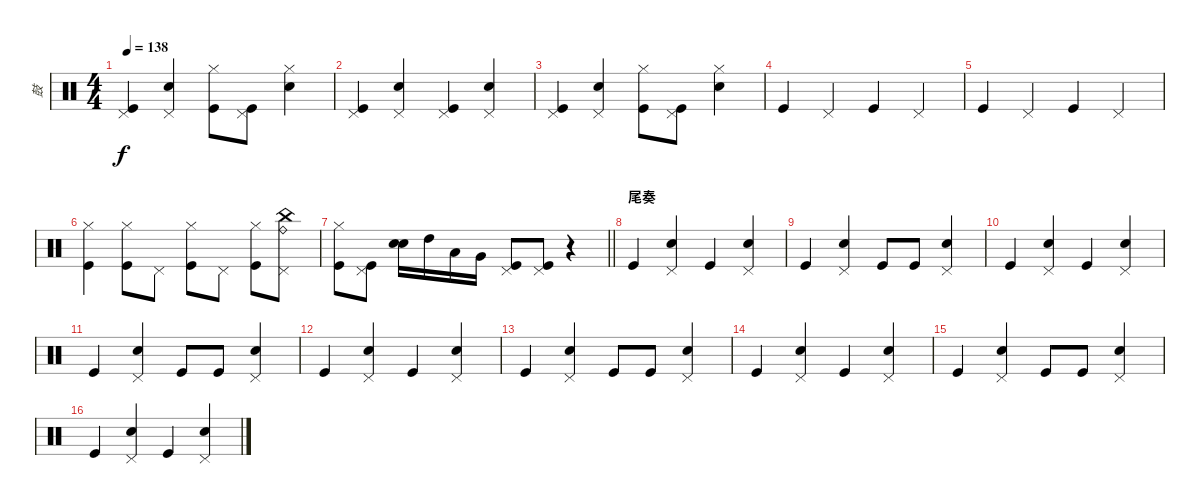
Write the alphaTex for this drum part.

\track ("鼓" "鼓") {instrument percussion}
\staff {score}
\articulation defaults
\ts (4 4)
\tempo 138
\clef neutral
\ks c
("Kick (hit)" "Pedal Hi-Hat (hit)").4{dy f} ("Snare (hit) 2" "Pedal Hi-Hat (hit)").4 ("Kick (hit)" "Hi-Hat (closed)").8 ("Kick (hit)" "Pedal Hi-Hat (hit)").8 ("Snare (hit) 2" "Hi-Hat (closed)").4 |
("Kick (hit)" "Pedal Hi-Hat (hit)").4 ("Snare (hit) 2" "Pedal Hi-Hat (hit)").4 ("Kick (hit)" "Pedal Hi-Hat (hit)").4 ("Snare (hit) 2" "Pedal Hi-Hat (hit)").4 |
("Kick (hit)" "Pedal Hi-Hat (hit)").4 ("Snare (hit) 2" "Pedal Hi-Hat (hit)").4 ("Kick (hit)" "Hi-Hat (closed)").8 ("Kick (hit)" "Pedal Hi-Hat (hit)").8 ("Snare (hit) 2" "Hi-Hat (closed)").4 |
"Kick (hit)".4 "Pedal Hi-Hat (hit)".4 "Kick (hit)".4 "Pedal Hi-Hat (hit)".4 |
"Kick (hit)".4 "Pedal Hi-Hat (hit)".4 "Kick (hit)".4 "Pedal Hi-Hat (hit)".4 |
("Kick (hit)" "Hi-Hat (closed)").4 ("Kick (hit)" "Hi-Hat (closed)").8 "Pedal Hi-Hat (hit)".8 ("Kick (hit)" "Hi-Hat (closed)").8 "Pedal Hi-Hat (hit)".8 ("Kick (hit)" "Hi-Hat (closed)").8 ("China (hit)" "Ride (bell)" "Pedal Hi-Hat (hit)").8 |
\barLineRight lightlight
("Kick (hit)" "Hi-Hat (closed)").8 ("Kick (hit)" "Pedal Hi-Hat (hit)").8 ("Hand Clap (hit)" "Electric Snare (hit)").16 "High Tom (hit)".16 "Low Tom (hit)".16 "Very Low Tom (hit)".16 ("Kick (hit)" "Pedal Hi-Hat (hit)").8 ("Kick (hit)" "Pedal Hi-Hat (hit)").8 r.4 |
\section ("" "尾奏")
"Kick (hit)".4 ("Snare (hit) 2" "Pedal Hi-Hat (hit)").4 "Kick (hit)".4 ("Snare (hit) 2" "Pedal Hi-Hat (hit)").4 |
"Kick (hit)".4 ("Snare (hit) 2" "Pedal Hi-Hat (hit)").4 "Kick (hit)".8 "Kick (hit)".8 ("Snare (hit) 2" "Pedal Hi-Hat (hit)").4 |
"Kick (hit)".4 ("Snare (hit) 2" "Pedal Hi-Hat (hit)").4 "Kick (hit)".4 ("Snare (hit) 2" "Pedal Hi-Hat (hit)").4 |
"Kick (hit)".4 ("Snare (hit) 2" "Pedal Hi-Hat (hit)").4 "Kick (hit)".8 "Kick (hit)".8 ("Snare (hit) 2" "Pedal Hi-Hat (hit)").4 |
"Kick (hit)".4 ("Snare (hit) 2" "Pedal Hi-Hat (hit)").4 "Kick (hit)".4 ("Snare (hit) 2" "Pedal Hi-Hat (hit)").4 |
"Kick (hit)".4 ("Snare (hit) 2" "Pedal Hi-Hat (hit)").4 "Kick (hit)".8 "Kick (hit)".8 ("Snare (hit) 2" "Pedal Hi-Hat (hit)").4 |
"Kick (hit)".4 ("Snare (hit) 2" "Pedal Hi-Hat (hit)").4 "Kick (hit)".4 ("Snare (hit) 2" "Pedal Hi-Hat (hit)").4 |
"Kick (hit)".4 ("Snare (hit) 2" "Pedal Hi-Hat (hit)").4 "Kick (hit)".8 "Kick (hit)".8 ("Snare (hit) 2" "Pedal Hi-Hat (hit)").4 |
"Kick (hit)".4 ("Snare (hit) 2" "Pedal Hi-Hat (hit)").4 "Kick (hit)".4 ("Snare (hit) 2" "Pedal Hi-Hat (hit)").4
